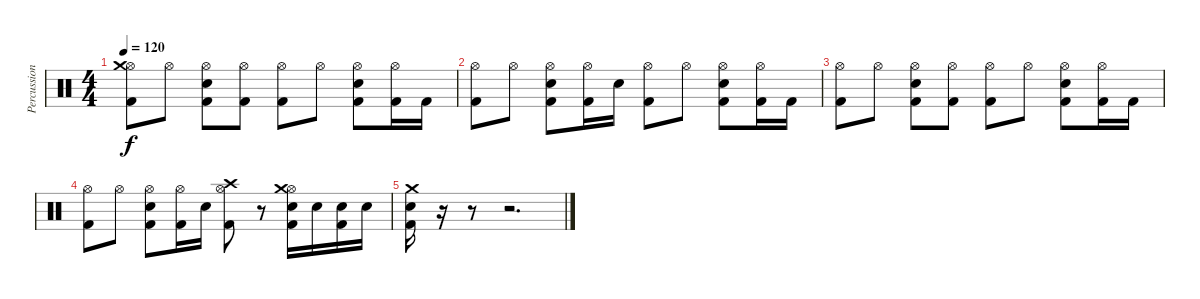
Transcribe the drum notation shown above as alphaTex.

\track ("Percussions" "Percussion") {instrument percussion}
\staff {score}
\articulation defaults
\ts (4 4)
\tempo 120
\clef neutral
\ks c
("Hi-Hat (open)" "Crash medium (hit)" "Kick (hit) 2").8{dy f} "Hi-Hat (open)".8 ("Hi-Hat (open)" "Snare (hit) 2" "Kick (hit) 2").8 ("Hi-Hat (open)" "Kick (hit) 2").8 ("Hi-Hat (open)" "Kick (hit) 2").8 "Hi-Hat (open)".8 ("Hi-Hat (open)" "Snare (hit) 2" "Kick (hit) 2").8 ("Hi-Hat (open)" "Kick (hit) 2").16 "Kick (hit) 2".16 |
("Hi-Hat (open)" "Kick (hit) 2").8 "Hi-Hat (open)".8 ("Hi-Hat (open)" "Snare (hit) 2" "Kick (hit) 2").8 ("Hi-Hat (open)" "Kick (hit) 2").16 "Snare (hit) 2".16 ("Hi-Hat (open)" "Kick (hit) 2").8 "Hi-Hat (open)".8 ("Hi-Hat (open)" "Snare (hit) 2" "Kick (hit) 2").8 ("Hi-Hat (open)" "Kick (hit) 2").16 "Kick (hit) 2".16 |
("Hi-Hat (open)" "Kick (hit) 2").8 "Hi-Hat (open)".8 ("Hi-Hat (open)" "Snare (hit) 2" "Kick (hit) 2").8 ("Hi-Hat (open)" "Kick (hit) 2").8 ("Hi-Hat (open)" "Kick (hit) 2").8 "Hi-Hat (open)".8 ("Hi-Hat (open)" "Snare (hit) 2" "Kick (hit) 2").8 ("Hi-Hat (open)" "Kick (hit) 2").16 "Kick (hit) 2".16 |
("Hi-Hat (open)" "Kick (hit) 2").8 "Hi-Hat (open)".8 ("Hi-Hat (open)" "Snare (hit) 2" "Kick (hit) 2").8 ("Hi-Hat (open)" "Kick (hit) 2").16 "Snare (hit) 2".16 ("Hi-Hat (open)" "Crash high (hit)" "Kick (hit) 2").8 r.8 ("Hi-Hat (open)" "Snare (hit) 2" "Crash medium (hit)" "Kick (hit) 2").16 "Snare (hit) 2".16 ("Snare (hit) 2" "Kick (hit) 2").16 "Snare (hit) 2".16 |
("Crash medium (hit)" "Snare (hit) 2" "Kick (hit) 2").16 r.16 r.8 r.2{d}
